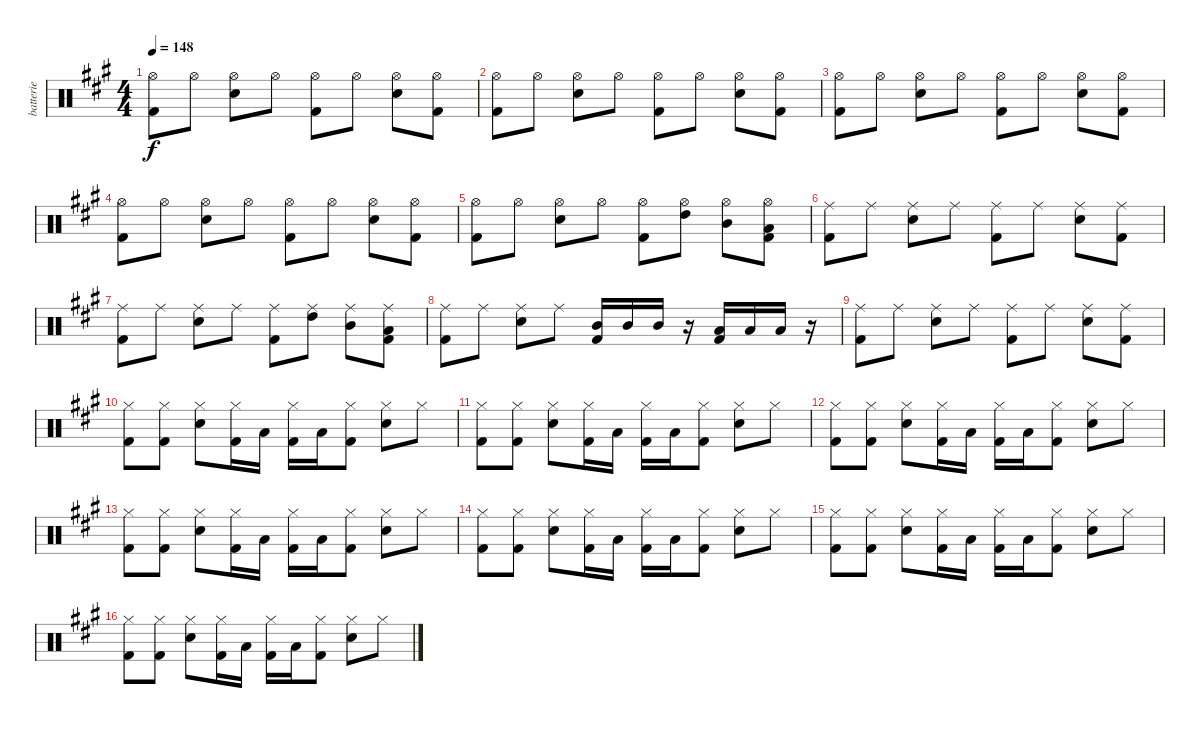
\track ("batterie" "batterie") {instrument percussion}
\staff {score}
\articulation defaults
\ts (4 4)
\tempo 148
\clef neutral
\ks a
("Kick (hit) 2" "Hi-Hat (open)").8{dy f} "Hi-Hat (open)".8 ("Snare (hit) 2" "Hi-Hat (open)").8 "Hi-Hat (open)".8 ("Kick (hit) 2" "Hi-Hat (open)").8 "Hi-Hat (open)".8 ("Snare (hit) 2" "Hi-Hat (open)").8 ("Kick (hit) 2" "Hi-Hat (open)").8 |
("Kick (hit) 2" "Hi-Hat (open)").8 "Hi-Hat (open)".8 ("Snare (hit) 2" "Hi-Hat (open)").8 "Hi-Hat (open)".8 ("Kick (hit) 2" "Hi-Hat (open)").8 "Hi-Hat (open)".8 ("Snare (hit) 2" "Hi-Hat (open)").8 ("Kick (hit) 2" "Hi-Hat (open)").8 |
("Kick (hit) 2" "Hi-Hat (open)").8 "Hi-Hat (open)".8 ("Snare (hit) 2" "Hi-Hat (open)").8 "Hi-Hat (open)".8 ("Kick (hit) 2" "Hi-Hat (open)").8 "Hi-Hat (open)".8 ("Snare (hit) 2" "Hi-Hat (open)").8 ("Kick (hit) 2" "Hi-Hat (open)").8 |
("Kick (hit) 2" "Hi-Hat (open)").8 "Hi-Hat (open)".8 ("Snare (hit) 2" "Hi-Hat (open)").8 "Hi-Hat (open)".8 ("Kick (hit) 2" "Hi-Hat (open)").8 "Hi-Hat (open)".8 ("Snare (hit) 2" "Hi-Hat (open)").8 ("Kick (hit) 2" "Hi-Hat (open)").8 |
("Kick (hit) 2" "Hi-Hat (open)").8 "Hi-Hat (open)".8 ("Snare (hit) 2" "Hi-Hat (open)").8 "Hi-Hat (open)".8 ("Kick (hit) 2" "Hi-Hat (open)").8 ("High Tom (hit)" "Hi-Hat (open)").8 ("Mid Tom (hit)" "Hi-Hat (open)").8 ("Kick (hit) 2" "Low Tom (hit)" "Hi-Hat (open)").8 |
("Kick (hit) 2" "Ride (middle)").8 "Ride (middle)".8 ("Snare (hit) 2" "Ride (middle)").8 "Ride (middle)".8 ("Kick (hit) 2" "Ride (middle)").8 "Ride (middle)".8 ("Snare (hit) 2" "Ride (middle)").8 ("Kick (hit) 2" "Ride (middle)").8 |
("Kick (hit) 2" "Ride (middle)").8 "Ride (middle)".8 ("Snare (hit) 2" "Ride (middle)").8 "Ride (middle)".8 ("Kick (hit) 2" "Ride (middle)").8 ("High Tom (hit)" "Ride (middle)").8 ("Mid Tom (hit)" "Ride (middle)").8 ("Kick (hit) 2" "Low Tom (hit)" "Ride (middle)").8 |
("Kick (hit) 2" "Ride (middle)").8 "Ride (middle)".8 ("Snare (hit) 2" "Ride (middle)").8 "Ride (middle)".8 ("Kick (hit) 2" "Mid Tom (hit)").16 "Mid Tom (hit)".16 "Mid Tom (hit)".16 r.16 ("Kick (hit) 2" "Low Tom (hit)").16 "Low Tom (hit)".16 "Low Tom (hit)".16 r.16 |
("Kick (hit) 2" "Ride (middle)").8 "Ride (middle)".8 ("Snare (hit) 2" "Ride (middle)").8 "Ride (middle)".8 ("Kick (hit) 2" "Ride (middle)").8 "Ride (middle)".8 ("Snare (hit) 2" "Ride (middle)").8 ("Kick (hit) 2" "Ride (middle)").8 |
("Kick (hit) 2" "Hi-Hat (closed)").8 ("Kick (hit) 2" "Hi-Hat (closed)").8 ("Snare (hit) 2" "Hi-Hat (closed)").8 ("Kick (hit) 2" "Hi-Hat (closed)").16 "Low Tom (hit)".16 ("Kick (hit) 2" "Hi-Hat (closed)").16 "Low Tom (hit)".16 ("Kick (hit) 2" "Hi-Hat (closed)").8 ("Snare (hit) 2" "Hi-Hat (closed)").8 "Hi-Hat (closed)".8 |
("Kick (hit) 2" "Hi-Hat (closed)").8 ("Kick (hit) 2" "Hi-Hat (closed)").8 ("Snare (hit) 2" "Hi-Hat (closed)").8 ("Kick (hit) 2" "Hi-Hat (closed)").16 "Low Tom (hit)".16 ("Kick (hit) 2" "Hi-Hat (closed)").16 "Low Tom (hit)".16 ("Kick (hit) 2" "Hi-Hat (closed)").8 ("Snare (hit) 2" "Hi-Hat (closed)").8 "Hi-Hat (closed)".8 |
("Kick (hit) 2" "Hi-Hat (closed)").8 ("Kick (hit) 2" "Hi-Hat (closed)").8 ("Snare (hit) 2" "Hi-Hat (closed)").8 ("Kick (hit) 2" "Hi-Hat (closed)").16 "Low Tom (hit)".16 ("Kick (hit) 2" "Hi-Hat (closed)").16 "Low Tom (hit)".16 ("Kick (hit) 2" "Hi-Hat (closed)").8 ("Snare (hit) 2" "Hi-Hat (closed)").8 "Hi-Hat (closed)".8 |
("Kick (hit) 2" "Hi-Hat (closed)").8 ("Kick (hit) 2" "Hi-Hat (closed)").8 ("Snare (hit) 2" "Hi-Hat (closed)").8 ("Kick (hit) 2" "Hi-Hat (closed)").16 "Low Tom (hit)".16 ("Kick (hit) 2" "Hi-Hat (closed)").16 "Low Tom (hit)".16 ("Kick (hit) 2" "Hi-Hat (closed)").8 ("Snare (hit) 2" "Hi-Hat (closed)").8 "Hi-Hat (closed)".8 |
("Kick (hit) 2" "Hi-Hat (closed)").8 ("Kick (hit) 2" "Hi-Hat (closed)").8 ("Snare (hit) 2" "Hi-Hat (closed)").8 ("Kick (hit) 2" "Hi-Hat (closed)").16 "Low Tom (hit)".16 ("Kick (hit) 2" "Hi-Hat (closed)").16 "Low Tom (hit)".16 ("Kick (hit) 2" "Hi-Hat (closed)").8 ("Snare (hit) 2" "Hi-Hat (closed)").8 "Hi-Hat (closed)".8 |
("Kick (hit) 2" "Hi-Hat (closed)").8 ("Kick (hit) 2" "Hi-Hat (closed)").8 ("Snare (hit) 2" "Hi-Hat (closed)").8 ("Kick (hit) 2" "Hi-Hat (closed)").16 "Low Tom (hit)".16 ("Kick (hit) 2" "Hi-Hat (closed)").16 "Low Tom (hit)".16 ("Kick (hit) 2" "Hi-Hat (closed)").8 ("Snare (hit) 2" "Hi-Hat (closed)").8 "Hi-Hat (closed)".8 |
("Kick (hit) 2" "Hi-Hat (closed)").8 ("Kick (hit) 2" "Hi-Hat (closed)").8 ("Snare (hit) 2" "Hi-Hat (closed)").8 ("Kick (hit) 2" "Hi-Hat (closed)").16 "Low Tom (hit)".16 ("Kick (hit) 2" "Hi-Hat (closed)").16 "Low Tom (hit)".16 ("Kick (hit) 2" "Hi-Hat (closed)").8 ("Snare (hit) 2" "Hi-Hat (closed)").8 "Hi-Hat (closed)".8
